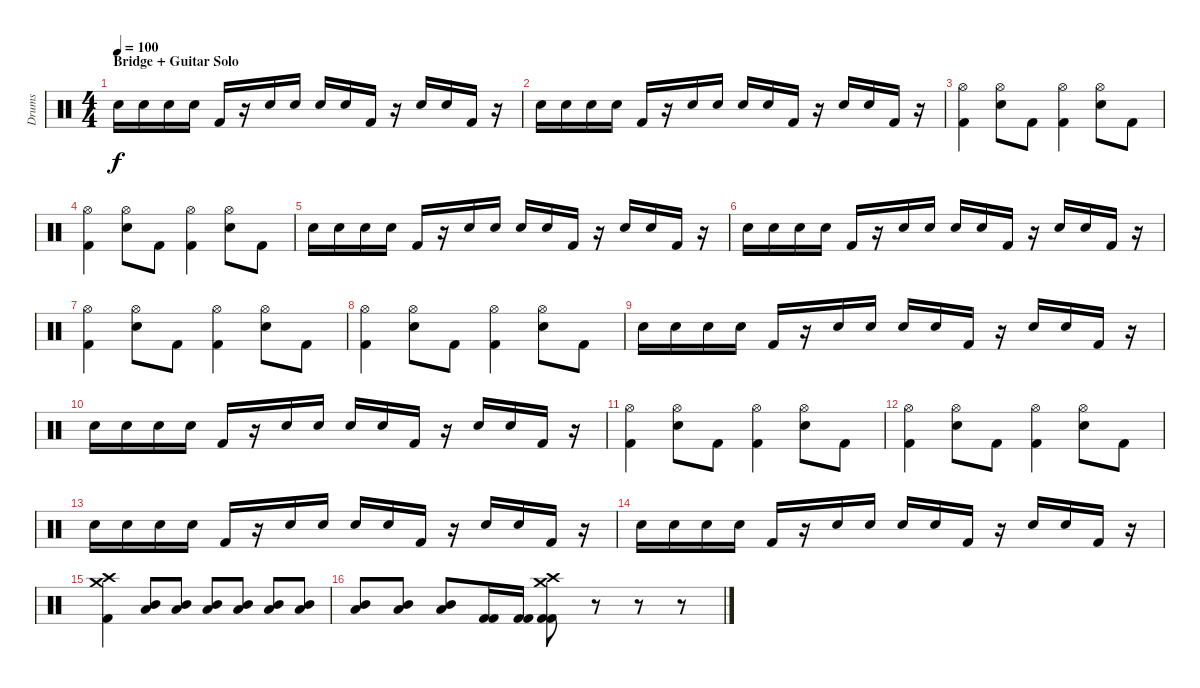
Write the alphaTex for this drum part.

\track ("Drums" "Drums") {instrument percussion}
\staff {score}
\articulation defaults
\ts (4 4)
\section ("" "Bridge + Guitar Solo")
\tempo 100
\clef neutral
\ks c "Snare (hit) 2".16{dy f volume 14} "Snare (hit) 2".16 "Snare (hit) 2".16 "Snare (hit) 2".16 "Kick (hit) 2".16
r.16 "Snare (hit) 2".16 "Snare (hit) 2".16 "Snare (hit) 2".16 "Snare (hit) 2".16 "Kick (hit) 2".16 r.16 "Snare (hit) 2".16 "Snare (hit) 2".16 "Kick (hit) 2".16 r.16 |
"Snare (hit) 2".16 "Snare (hit) 2".16 "Snare (hit) 2".16 "Snare (hit) 2".16 "Kick (hit) 2".16 r.16 "Snare (hit) 2".16 "Snare (hit) 2".16 "Snare (hit) 2".16 "Snare (hit) 2".16 "Kick (hit) 2".16 r.16 "Snare (hit) 2".16 "Snare (hit) 2".16 "Kick (hit) 2".16 r.16 |
("Hi-Hat (open)" "Kick (hit) 2").4 ("Hi-Hat (open)" "Snare (hit) 2").8 "Kick (hit) 2".8 ("Hi-Hat (open)" "Kick (hit) 2").4 ("Hi-Hat (open)" "Snare (hit) 2").8 "Kick (hit) 2".8 |
("Hi-Hat (open)" "Kick (hit) 2").4 ("Hi-Hat (open)" "Snare (hit) 2").8 "Kick (hit) 2".8 ("Hi-Hat (open)" "Kick (hit) 2").4 ("Hi-Hat (open)" "Snare (hit) 2").8 "Kick (hit) 2".8 |
"Snare (hit) 2".16 "Snare (hit) 2".16 "Snare (hit) 2".16 "Snare (hit) 2".16 "Kick (hit) 2".16 r.16 "Snare (hit) 2".16 "Snare (hit) 2".16 "Snare (hit) 2".16 "Snare (hit) 2".16 "Kick (hit) 2".16 r.16 "Snare (hit) 2".16 "Snare (hit) 2".16 "Kick (hit) 2".16 r.16 |
"Snare (hit) 2".16 "Snare (hit) 2".16 "Snare (hit) 2".16 "Snare (hit) 2".16 "Kick (hit) 2".16 r.16 "Snare (hit) 2".16 "Snare (hit) 2".16 "Snare (hit) 2".16 "Snare (hit) 2".16 "Kick (hit) 2".16 r.16 "Snare (hit) 2".16 "Snare (hit) 2".16 "Kick (hit) 2".16 r.16 |
("Hi-Hat (open)" "Kick (hit) 2").4 ("Hi-Hat (open)" "Snare (hit) 2").8 "Kick (hit) 2".8 ("Hi-Hat (open)" "Kick (hit) 2").4 ("Hi-Hat (open)" "Snare (hit) 2").8 "Kick (hit) 2".8 |
("Hi-Hat (open)" "Kick (hit) 2").4 ("Hi-Hat (open)" "Snare (hit) 2").8 "Kick (hit) 2".8 ("Hi-Hat (open)" "Kick (hit) 2").4 ("Hi-Hat (open)" "Snare (hit) 2").8 "Kick (hit) 2".8 |
"Snare (hit) 2".16 "Snare (hit) 2".16 "Snare (hit) 2".16 "Snare (hit) 2".16 "Kick (hit) 2".16 r.16 "Snare (hit) 2".16 "Snare (hit) 2".16 "Snare (hit) 2".16 "Snare (hit) 2".16 "Kick (hit) 2".16 r.16 "Snare (hit) 2".16 "Snare (hit) 2".16 "Kick (hit) 2".16 r.16 |
"Snare (hit) 2".16 "Snare (hit) 2".16 "Snare (hit) 2".16 "Snare (hit) 2".16 "Kick (hit) 2".16 r.16 "Snare (hit) 2".16 "Snare (hit) 2".16 "Snare (hit) 2".16 "Snare (hit) 2".16 "Kick (hit) 2".16 r.16 "Snare (hit) 2".16 "Snare (hit) 2".16 "Kick (hit) 2".16 r.16 |
("Hi-Hat (open)" "Kick (hit) 2").4 ("Hi-Hat (open)" "Snare (hit) 2").8 "Kick (hit) 2".8 ("Hi-Hat (open)" "Kick (hit) 2").4 ("Hi-Hat (open)" "Snare (hit) 2").8 "Kick (hit) 2".8 |
("Hi-Hat (open)" "Kick (hit) 2").4 ("Hi-Hat (open)" "Snare (hit) 2").8 "Kick (hit) 2".8 ("Hi-Hat (open)" "Kick (hit) 2").4 ("Hi-Hat (open)" "Snare (hit) 2").8 "Kick (hit) 2".8 |
"Snare (hit) 2".16 "Snare (hit) 2".16 "Snare (hit) 2".16 "Snare (hit) 2".16 "Kick (hit) 2".16 r.16 "Snare (hit) 2".16 "Snare (hit) 2".16 "Snare (hit) 2".16 "Snare (hit) 2".16 "Kick (hit) 2".16 r.16 "Snare (hit) 2".16 "Snare (hit) 2".16 "Kick (hit) 2".16 r.16 |
"Snare (hit) 2".16 "Snare (hit) 2".16 "Snare (hit) 2".16 "Snare (hit) 2".16 "Kick (hit) 2".16 r.16 "Snare (hit) 2".16 "Snare (hit) 2".16 "Snare (hit) 2".16 "Snare (hit) 2".16 "Kick (hit) 2".16 r.16 "Snare (hit) 2".16 "Snare (hit) 2".16 "Kick (hit) 2".16 r.16 |
("Crash medium (hit)" "Crash high (hit)" "Kick (hit) 2").4 ("Mid Tom (hit)" "Low Tom (hit)").8 ("Mid Tom (hit)" "Low Tom (hit)").8 ("Mid Tom (hit)" "Low Tom (hit)").8 ("Mid Tom (hit)" "Low Tom (hit)").8 ("Mid Tom (hit)" "Low Tom (hit)").8 ("Mid Tom (hit)" "Low Tom (hit)").8 |
("Mid Tom (hit)" "Low Tom (hit)").8 ("Mid Tom (hit)" "Low Tom (hit)").8 ("Mid Tom (hit)" "Low Tom (hit)").8 ("Kick (hit) 2" "Kick (hit) 2").16 ("Kick (hit) 2" "Kick (hit) 2").16 ("Crash medium (hit)" "Crash high (hit)" "Kick (hit) 2" "Kick (hit) 2").8 r.8 r.8 r.8
